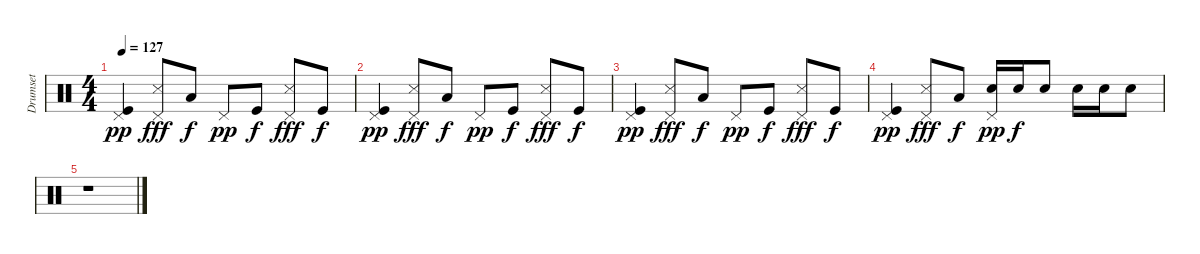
\track ("Drumset" "Drumset") {instrument percussion}
\staff {score}
\articulation defaults
\ts (4 4)
\tempo 127
\clef neutral
\ks c
("Pedal Hi-Hat (hit)" "Kick (hit)").4{dy pp} ("Pedal Hi-Hat (hit)" "Snare (side stick) 3").8{dy fff} "Low Tom (hit)".8{dy f} "Pedal Hi-Hat (hit)".8{dy pp} "Kick (hit)".8{dy f} ("Pedal Hi-Hat (hit)" "Snare (side stick) 3").8{dy fff} "Kick (hit)".8{dy f} |
("Pedal Hi-Hat (hit)" "Kick (hit)").4{dy pp} ("Pedal Hi-Hat (hit)" "Snare (side stick) 3").8{dy fff} "Low Tom (hit)".8{dy f} "Pedal Hi-Hat (hit)".8{dy pp} "Kick (hit)".8{dy f} ("Pedal Hi-Hat (hit)" "Snare (side stick) 3").8{dy fff} "Kick (hit)".8{dy f} |
("Pedal Hi-Hat (hit)" "Kick (hit)").4{dy pp} ("Pedal Hi-Hat (hit)" "Snare (side stick) 3").8{dy fff} "Low Tom (hit)".8{dy f} "Pedal Hi-Hat (hit)".8{dy pp} "Kick (hit)".8{dy f} ("Pedal Hi-Hat (hit)" "Snare (side stick) 3").8{dy fff} "Kick (hit)".8{dy f} |
("Pedal Hi-Hat (hit)" "Kick (hit)").4{dy pp} ("Pedal Hi-Hat (hit)" "Snare (side stick) 3").8{dy fff} "Low Tom (hit)".8{dy f} ("Pedal Hi-Hat (hit)" "Electric Snare (hit)").16{dy pp} "Electric Snare (hit)".16{dy f} "Electric Snare (hit)".8 "Electric Snare (hit)".16 "Electric Snare (hit)".16 "Electric Snare (hit)".8 |
r.1
